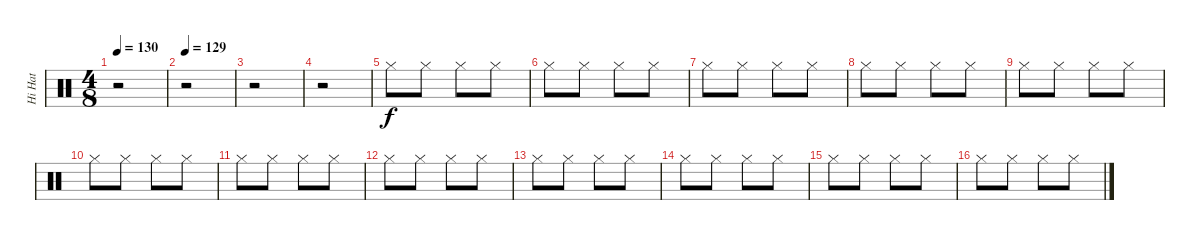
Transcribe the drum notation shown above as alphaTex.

\track ("Hi Hat" "Hi Hat") {instrument percussion}
\staff {score}
\articulation defaults
\ts (4 8)
\tempo 130
\clef neutral
\ks c
r.2{dy f} |
\tempo 129
r.2 |
r.2 |
r.2 |
"Hi-Hat (closed)".8 "Hi-Hat (closed)".8 "Hi-Hat (closed)".8 "Hi-Hat (closed)".8 |
"Hi-Hat (closed)".8 "Hi-Hat (closed)".8 "Hi-Hat (closed)".8 "Hi-Hat (closed)".8 |
"Hi-Hat (closed)".8 "Hi-Hat (closed)".8 "Hi-Hat (closed)".8 "Hi-Hat (closed)".8 |
"Hi-Hat (closed)".8 "Hi-Hat (closed)".8 "Hi-Hat (closed)".8 "Hi-Hat (closed)".8 |
"Hi-Hat (closed)".8 "Hi-Hat (closed)".8 "Hi-Hat (closed)".8 "Hi-Hat (closed)".8 |
"Hi-Hat (closed)".8 "Hi-Hat (closed)".8 "Hi-Hat (closed)".8 "Hi-Hat (closed)".8 |
"Hi-Hat (closed)".8 "Hi-Hat (closed)".8 "Hi-Hat (closed)".8 "Hi-Hat (closed)".8 |
"Hi-Hat (closed)".8 "Hi-Hat (closed)".8 "Hi-Hat (closed)".8 "Hi-Hat (closed)".8 |
"Hi-Hat (closed)".8 "Hi-Hat (closed)".8 "Hi-Hat (closed)".8 "Hi-Hat (closed)".8 |
"Hi-Hat (closed)".8 "Hi-Hat (closed)".8 "Hi-Hat (closed)".8 "Hi-Hat (closed)".8 |
"Hi-Hat (closed)".8 "Hi-Hat (closed)".8 "Hi-Hat (closed)".8 "Hi-Hat (closed)".8 |
"Hi-Hat (closed)".8 "Hi-Hat (closed)".8 "Hi-Hat (closed)".8 "Hi-Hat (closed)".8
